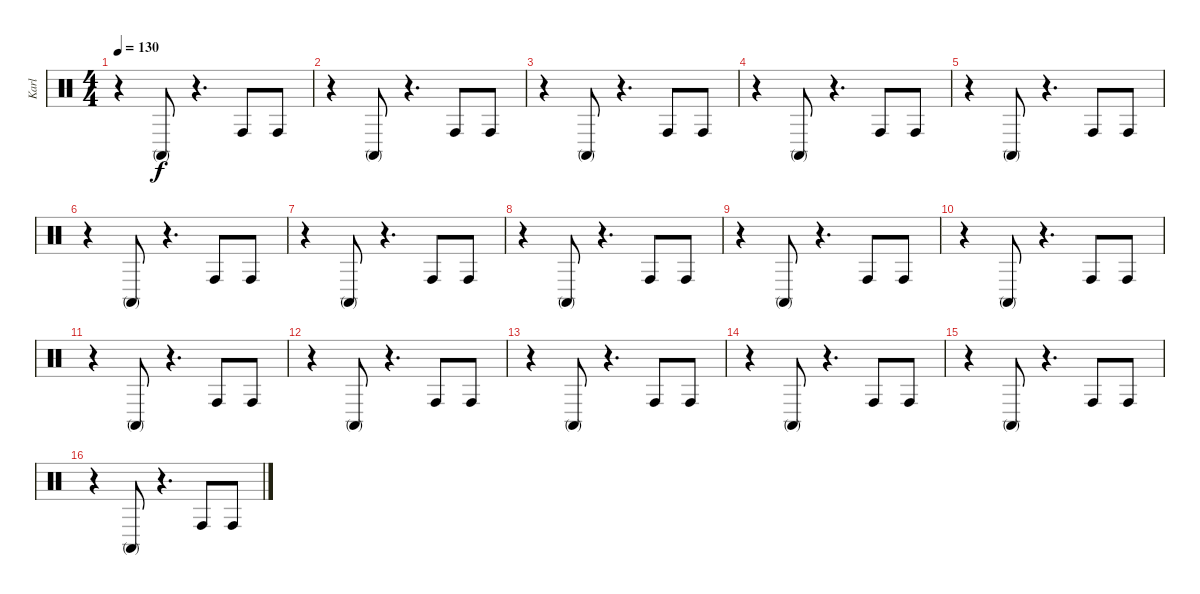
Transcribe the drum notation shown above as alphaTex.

\track ("Karl" "Karl") {instrument percussion}
\staff {score}
\articulation defaults
\ts (4 4)
\tempo 130
\clef neutral
\ks c
r.4{dy f} "Conga high (mute)".8 r.4{d} "Conga high (hit)".8 "Conga high (hit)".8 |
r.4 "Conga high (mute)".8 r.4{d} "Conga high (hit)".8 "Conga high (hit)".8 |
r.4 "Conga high (mute)".8 r.4{d} "Conga high (hit)".8 "Conga high (hit)".8 |
r.4 "Conga high (mute)".8 r.4{d} "Conga high (hit)".8 "Conga high (hit)".8 |
r.4 "Conga high (mute)".8 r.4{d} "Conga high (hit)".8 "Conga high (hit)".8 |
r.4 "Conga high (mute)".8 r.4{d} "Conga high (hit)".8 "Conga high (hit)".8 |
r.4 "Conga high (mute)".8 r.4{d} "Conga high (hit)".8 "Conga high (hit)".8 |
r.4 "Conga high (mute)".8 r.4{d} "Conga high (hit)".8 "Conga high (hit)".8 |
r.4 "Conga high (mute)".8 r.4{d} "Conga high (hit)".8 "Conga high (hit)".8 |
r.4 "Conga high (mute)".8 r.4{d} "Conga high (hit)".8 "Conga high (hit)".8 |
r.4 "Conga high (mute)".8 r.4{d} "Conga high (hit)".8 "Conga high (hit)".8 |
r.4 "Conga high (mute)".8 r.4{d} "Conga high (hit)".8 "Conga high (hit)".8 |
r.4 "Conga high (mute)".8 r.4{d} "Conga high (hit)".8 "Conga high (hit)".8 |
r.4 "Conga high (mute)".8 r.4{d} "Conga high (hit)".8 "Conga high (hit)".8 |
r.4 "Conga high (mute)".8 r.4{d} "Conga high (hit)".8 "Conga high (hit)".8 |
r.4 "Conga high (mute)".8 r.4{d} "Conga high (hit)".8 "Conga high (hit)".8
